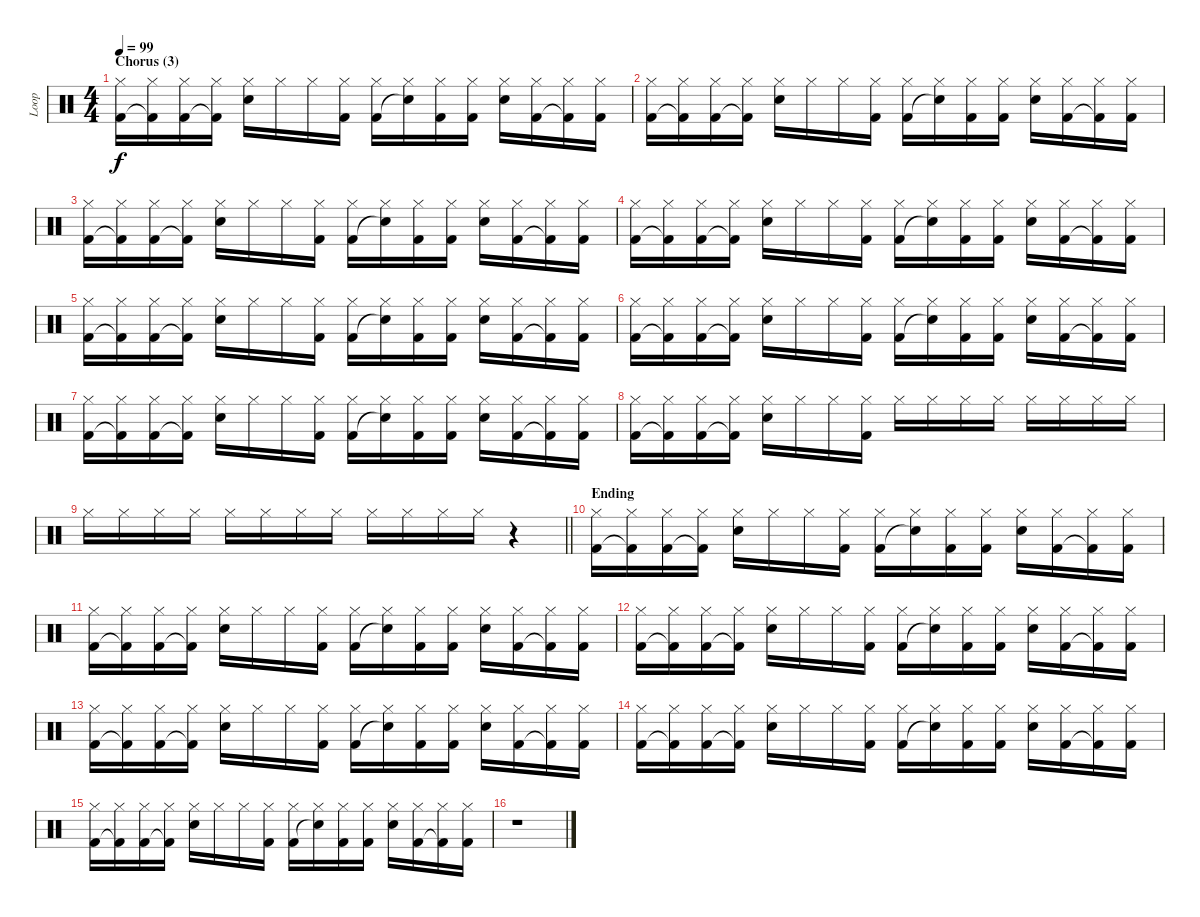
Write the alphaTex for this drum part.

\track ("Loop" "Loop") {instrument percussion}
\staff {score}
\articulation defaults
\ts (4 4)
\section ("" "Chorus (3)")
\tempo 99
\clef neutral
\ks c
("Hi-Hat (closed)" "Kick (hit) 2").16{dy f} ("Hi-Hat (closed)" "Kick (hit) 2"{t}).16 ("Hi-Hat (closed)" "Kick (hit) 2").16 ("Hi-Hat (closed)" "Kick (hit) 2"{t}).16 ("Hi-Hat (closed)" "Electric Snare (hit)").16 "Hi-Hat (closed)".16 "Hi-Hat (closed)".16 ("Hi-Hat (closed)" "Kick (hit) 2").16 ("Hi-Hat (closed)" "Kick (hit) 2").16 ("Hi-Hat (closed)" "Snare (hit)"{t}).16 ("Hi-Hat (closed)" "Kick (hit) 2").16 ("Hi-Hat (closed)" "Kick (hit) 2").16 ("Hi-Hat (closed)" "Electric Snare (hit)").16 ("Hi-Hat (closed)" "Kick (hit) 2").16 ("Hi-Hat (closed)" "Kick (hit) 2"{t}).16 ("Hi-Hat (closed)" "Kick (hit) 2").16 |
("Hi-Hat (closed)" "Kick (hit) 2").16 ("Hi-Hat (closed)" "Kick (hit) 2"{t}).16 ("Hi-Hat (closed)" "Kick (hit) 2").16 ("Hi-Hat (closed)" "Kick (hit) 2"{t}).16 ("Hi-Hat (closed)" "Electric Snare (hit)").16 "Hi-Hat (closed)".16 "Hi-Hat (closed)".16 ("Hi-Hat (closed)" "Kick (hit) 2").16 ("Hi-Hat (closed)" "Kick (hit) 2").16 ("Hi-Hat (closed)" "Snare (hit)"{t}).16 ("Hi-Hat (closed)" "Kick (hit) 2").16 ("Hi-Hat (closed)" "Kick (hit) 2").16 ("Hi-Hat (closed)" "Electric Snare (hit)").16 ("Hi-Hat (closed)" "Kick (hit) 2").16 ("Hi-Hat (closed)" "Kick (hit) 2"{t}).16 ("Hi-Hat (closed)" "Kick (hit) 2").16 |
("Hi-Hat (closed)" "Kick (hit) 2").16 ("Hi-Hat (closed)" "Kick (hit) 2"{t}).16 ("Hi-Hat (closed)" "Kick (hit) 2").16 ("Hi-Hat (closed)" "Kick (hit) 2"{t}).16 ("Hi-Hat (closed)" "Electric Snare (hit)").16 "Hi-Hat (closed)".16 "Hi-Hat (closed)".16 ("Hi-Hat (closed)" "Kick (hit) 2").16 ("Hi-Hat (closed)" "Kick (hit) 2").16 ("Hi-Hat (closed)" "Snare (hit)"{t}).16 ("Hi-Hat (closed)" "Kick (hit) 2").16 ("Hi-Hat (closed)" "Kick (hit) 2").16 ("Hi-Hat (closed)" "Electric Snare (hit)").16 ("Hi-Hat (closed)" "Kick (hit) 2").16 ("Hi-Hat (closed)" "Kick (hit) 2"{t}).16 ("Hi-Hat (closed)" "Kick (hit) 2").16 |
("Hi-Hat (closed)" "Kick (hit) 2").16 ("Hi-Hat (closed)" "Kick (hit) 2"{t}).16 ("Hi-Hat (closed)" "Kick (hit) 2").16 ("Hi-Hat (closed)" "Kick (hit) 2"{t}).16 ("Hi-Hat (closed)" "Electric Snare (hit)").16 "Hi-Hat (closed)".16 "Hi-Hat (closed)".16 ("Hi-Hat (closed)" "Kick (hit) 2").16 ("Hi-Hat (closed)" "Kick (hit) 2").16 ("Hi-Hat (closed)" "Snare (hit)"{t}).16 ("Hi-Hat (closed)" "Kick (hit) 2").16 ("Hi-Hat (closed)" "Kick (hit) 2").16 ("Hi-Hat (closed)" "Electric Snare (hit)").16 ("Hi-Hat (closed)" "Kick (hit) 2").16 ("Hi-Hat (closed)" "Kick (hit) 2"{t}).16 ("Hi-Hat (closed)" "Kick (hit) 2").16 |
("Hi-Hat (closed)" "Kick (hit) 2").16 ("Hi-Hat (closed)" "Kick (hit) 2"{t}).16 ("Hi-Hat (closed)" "Kick (hit) 2").16 ("Hi-Hat (closed)" "Kick (hit) 2"{t}).16 ("Hi-Hat (closed)" "Electric Snare (hit)").16 "Hi-Hat (closed)".16 "Hi-Hat (closed)".16 ("Hi-Hat (closed)" "Kick (hit) 2").16 ("Hi-Hat (closed)" "Kick (hit) 2").16 ("Hi-Hat (closed)" "Snare (hit)"{t}).16 ("Hi-Hat (closed)" "Kick (hit) 2").16 ("Hi-Hat (closed)" "Kick (hit) 2").16 ("Hi-Hat (closed)" "Electric Snare (hit)").16 ("Hi-Hat (closed)" "Kick (hit) 2").16 ("Hi-Hat (closed)" "Kick (hit) 2"{t}).16 ("Hi-Hat (closed)" "Kick (hit) 2").16 |
("Hi-Hat (closed)" "Kick (hit) 2").16 ("Hi-Hat (closed)" "Kick (hit) 2"{t}).16 ("Hi-Hat (closed)" "Kick (hit) 2").16 ("Hi-Hat (closed)" "Kick (hit) 2"{t}).16 ("Hi-Hat (closed)" "Electric Snare (hit)").16 "Hi-Hat (closed)".16 "Hi-Hat (closed)".16 ("Hi-Hat (closed)" "Kick (hit) 2").16 ("Hi-Hat (closed)" "Kick (hit) 2").16 ("Hi-Hat (closed)" "Snare (hit)"{t}).16 ("Hi-Hat (closed)" "Kick (hit) 2").16 ("Hi-Hat (closed)" "Kick (hit) 2").16 ("Hi-Hat (closed)" "Electric Snare (hit)").16 ("Hi-Hat (closed)" "Kick (hit) 2").16 ("Hi-Hat (closed)" "Kick (hit) 2"{t}).16 ("Hi-Hat (closed)" "Kick (hit) 2").16 |
("Hi-Hat (closed)" "Kick (hit) 2").16 ("Hi-Hat (closed)" "Kick (hit) 2"{t}).16 ("Hi-Hat (closed)" "Kick (hit) 2").16 ("Hi-Hat (closed)" "Kick (hit) 2"{t}).16 ("Hi-Hat (closed)" "Electric Snare (hit)").16 "Hi-Hat (closed)".16 "Hi-Hat (closed)".16 ("Hi-Hat (closed)" "Kick (hit) 2").16 ("Hi-Hat (closed)" "Kick (hit) 2").16 ("Hi-Hat (closed)" "Snare (hit)"{t}).16 ("Hi-Hat (closed)" "Kick (hit) 2").16 ("Hi-Hat (closed)" "Kick (hit) 2").16 ("Hi-Hat (closed)" "Electric Snare (hit)").16 ("Hi-Hat (closed)" "Kick (hit) 2").16 ("Hi-Hat (closed)" "Kick (hit) 2"{t}).16 ("Hi-Hat (closed)" "Kick (hit) 2").16 |
("Hi-Hat (closed)" "Kick (hit) 2").16 ("Hi-Hat (closed)" "Kick (hit) 2"{t}).16 ("Hi-Hat (closed)" "Kick (hit) 2").16 ("Hi-Hat (closed)" "Kick (hit) 2"{t}).16 ("Hi-Hat (closed)" "Electric Snare (hit)").16 "Hi-Hat (closed)".16 "Hi-Hat (closed)".16 ("Hi-Hat (closed)" "Kick (hit) 2").16 "Hi-Hat (closed)".16 "Hi-Hat (closed)".16 "Hi-Hat (closed)".16 "Hi-Hat (closed)".16 "Hi-Hat (closed)".16 "Hi-Hat (closed)".16 "Hi-Hat (closed)".16 "Hi-Hat (closed)".16 |
\barLineRight lightlight "Hi-Hat (closed)".16 "Hi-Hat (closed)".16 "Hi-Hat (closed)".16 "Hi-Hat (closed)".16 "Hi-Hat (closed)".16 "Hi-Hat (closed)".16 "Hi-Hat (closed)".16 "Hi-Hat (closed)".16 "Hi-Hat (closed)".16 "Hi-Hat (closed)".16 "Hi-Hat (closed)".16 "Hi-Hat (closed)".16
r.4 |
\section ("" "Ending")
("Hi-Hat (closed)" "Kick (hit) 2").16 ("Hi-Hat (closed)" "Kick (hit) 2"{t}).16 ("Hi-Hat (closed)" "Kick (hit) 2").16 ("Hi-Hat (closed)" "Kick (hit) 2"{t}).16 ("Hi-Hat (closed)" "Electric Snare (hit)").16 "Hi-Hat (closed)".16 "Hi-Hat (closed)".16 ("Hi-Hat (closed)" "Kick (hit) 2").16 ("Hi-Hat (closed)" "Kick (hit) 2").16 ("Hi-Hat (closed)" "Snare (hit)"{t}).16 ("Hi-Hat (closed)" "Kick (hit) 2").16 ("Hi-Hat (closed)" "Kick (hit) 2").16 ("Hi-Hat (closed)" "Electric Snare (hit)").16 ("Hi-Hat (closed)" "Kick (hit) 2").16 ("Hi-Hat (closed)" "Kick (hit) 2"{t}).16 ("Hi-Hat (closed)" "Kick (hit) 2").16 |
("Hi-Hat (closed)" "Kick (hit) 2").16 ("Hi-Hat (closed)" "Kick (hit) 2"{t}).16 ("Hi-Hat (closed)" "Kick (hit) 2").16 ("Hi-Hat (closed)" "Kick (hit) 2"{t}).16 ("Hi-Hat (closed)" "Electric Snare (hit)").16 "Hi-Hat (closed)".16 "Hi-Hat (closed)".16 ("Hi-Hat (closed)" "Kick (hit) 2").16 ("Hi-Hat (closed)" "Kick (hit) 2").16 ("Hi-Hat (closed)" "Snare (hit)"{t}).16 ("Hi-Hat (closed)" "Kick (hit) 2").16 ("Hi-Hat (closed)" "Kick (hit) 2").16 ("Hi-Hat (closed)" "Electric Snare (hit)").16 ("Hi-Hat (closed)" "Kick (hit) 2").16 ("Hi-Hat (closed)" "Kick (hit) 2"{t}).16 ("Hi-Hat (closed)" "Kick (hit) 2").16 |
("Hi-Hat (closed)" "Kick (hit) 2").16 ("Hi-Hat (closed)" "Kick (hit) 2"{t}).16 ("Hi-Hat (closed)" "Kick (hit) 2").16 ("Hi-Hat (closed)" "Kick (hit) 2"{t}).16 ("Hi-Hat (closed)" "Electric Snare (hit)").16 "Hi-Hat (closed)".16 "Hi-Hat (closed)".16 ("Hi-Hat (closed)" "Kick (hit) 2").16 ("Hi-Hat (closed)" "Kick (hit) 2").16 ("Hi-Hat (closed)" "Snare (hit)"{t}).16 ("Hi-Hat (closed)" "Kick (hit) 2").16 ("Hi-Hat (closed)" "Kick (hit) 2").16 ("Hi-Hat (closed)" "Electric Snare (hit)").16 ("Hi-Hat (closed)" "Kick (hit) 2").16 ("Hi-Hat (closed)" "Kick (hit) 2"{t}).16 ("Hi-Hat (closed)" "Kick (hit) 2").16 |
("Hi-Hat (closed)" "Kick (hit) 2").16 ("Hi-Hat (closed)" "Kick (hit) 2"{t}).16 ("Hi-Hat (closed)" "Kick (hit) 2").16 ("Hi-Hat (closed)" "Kick (hit) 2"{t}).16 ("Hi-Hat (closed)" "Electric Snare (hit)").16 "Hi-Hat (closed)".16 "Hi-Hat (closed)".16 ("Hi-Hat (closed)" "Kick (hit) 2").16 ("Hi-Hat (closed)" "Kick (hit) 2").16 ("Hi-Hat (closed)" "Snare (hit)"{t}).16 ("Hi-Hat (closed)" "Kick (hit) 2").16 ("Hi-Hat (closed)" "Kick (hit) 2").16 ("Hi-Hat (closed)" "Electric Snare (hit)").16 ("Hi-Hat (closed)" "Kick (hit) 2").16 ("Hi-Hat (closed)" "Kick (hit) 2"{t}).16 ("Hi-Hat (closed)" "Kick (hit) 2").16 |
("Hi-Hat (closed)" "Kick (hit) 2").16 ("Hi-Hat (closed)" "Kick (hit) 2"{t}).16 ("Hi-Hat (closed)" "Kick (hit) 2").16 ("Hi-Hat (closed)" "Kick (hit) 2"{t}).16 ("Hi-Hat (closed)" "Electric Snare (hit)").16 "Hi-Hat (closed)".16 "Hi-Hat (closed)".16 ("Hi-Hat (closed)" "Kick (hit) 2").16 ("Hi-Hat (closed)" "Kick (hit) 2").16 ("Hi-Hat (closed)" "Snare (hit)"{t}).16 ("Hi-Hat (closed)" "Kick (hit) 2").16 ("Hi-Hat (closed)" "Kick (hit) 2").16 ("Hi-Hat (closed)" "Electric Snare (hit)").16 ("Hi-Hat (closed)" "Kick (hit) 2").16 ("Hi-Hat (closed)" "Kick (hit) 2"{t}).16 ("Hi-Hat (closed)" "Kick (hit) 2").16 |
("Hi-Hat (closed)" "Kick (hit) 2").16 ("Hi-Hat (closed)" "Kick (hit) 2"{t}).16 ("Hi-Hat (closed)" "Kick (hit) 2").16 ("Hi-Hat (closed)" "Kick (hit) 2"{t}).16 ("Hi-Hat (closed)" "Electric Snare (hit)").16 "Hi-Hat (closed)".16 "Hi-Hat (closed)".16 ("Hi-Hat (closed)" "Kick (hit) 2").16 ("Hi-Hat (closed)" "Kick (hit) 2").16 ("Hi-Hat (closed)" "Snare (hit)"{t}).16 ("Hi-Hat (closed)" "Kick (hit) 2").16 ("Hi-Hat (closed)" "Kick (hit) 2").16 ("Hi-Hat (closed)" "Electric Snare (hit)").16 ("Hi-Hat (closed)" "Kick (hit) 2").16 ("Hi-Hat (closed)" "Kick (hit) 2"{t}).16 ("Hi-Hat (closed)" "Kick (hit) 2").16 |
r.1
